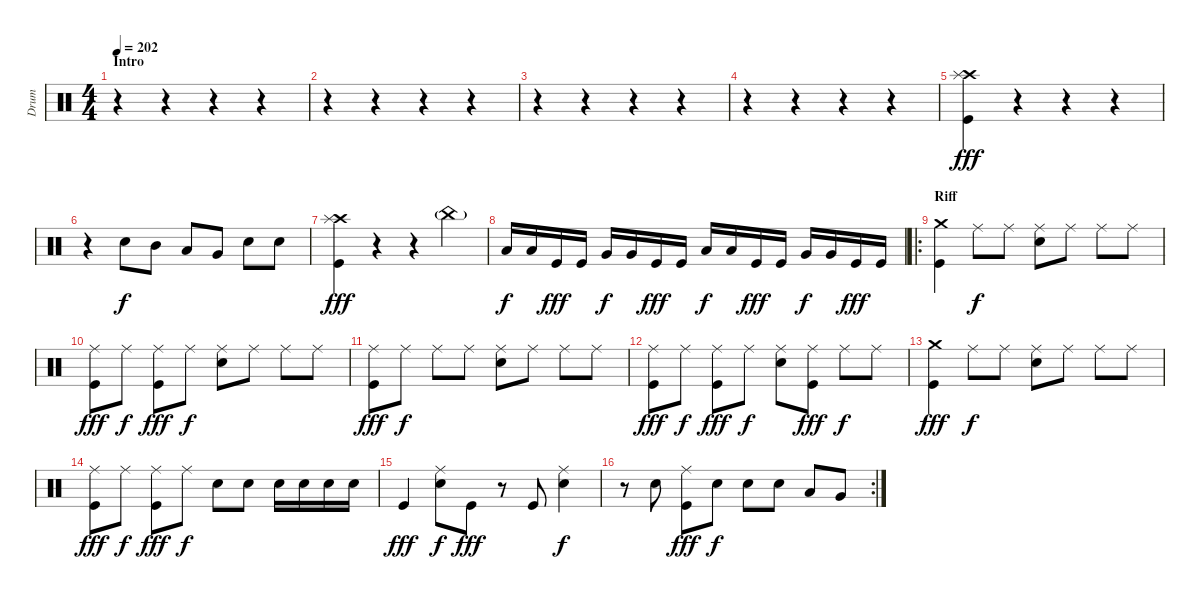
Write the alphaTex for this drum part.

\track ("Drum" "Drum") {instrument percussion}
\staff {score}
\articulation defaults
\ts (4 4)
\section ("" "Intro")
\tempo 202
\clef neutral
\ks c
r.4{dy fff} r.4 r.4 r.4 |
r.4 r.4 r.4 r.4 |
r.4 r.4 r.4 r.4 |
r.4 r.4 r.4 r.4 |
("Crash high (hit)" "Splash (hit)" "Kick (hit)").4 r.4 r.4 r.4 |
r.4 "Electric Snare (hit)".8{dy f} "Mid Tom (hit)".8 "Low Tom (hit)".8 "Very Low Tom (hit)".8 "Electric Snare (hit)".8 "Electric Snare (hit)".8 |
("Crash high (hit)" "Splash (hit)" "Kick (hit)").4{dy fff} r.4 r.4 "China (hit)"{g}.4 |
"Low Tom (hit)".16{dy f} "Low Tom (hit)".16 "Kick (hit)".16{dy fff} "Kick (hit)".16 "Very Low Tom (hit)".16{dy f} "Very Low Tom (hit)".16 "Kick (hit)".16{dy fff} "Kick (hit)".16 "Low Floor Tom (hit)".16{dy f} "Low Floor Tom (hit)".16 "Kick (hit)".16{dy fff} "Kick (hit)".16 "Very Low Tom (hit)".16{dy f} "Very Low Tom (hit)".16 "Kick (hit)".16{dy fff} "Kick (hit)".16 |
\ro
\section ("" "Riff")
("Crash medium (hit)" "Kick (hit)").4 "Ride (middle)".8{dy f} "Ride (middle)".8 ("Ride (middle)" "Electric Snare (hit)").8 "Ride (middle)".8 "Ride (middle)".8 "Ride (middle)".8 |
("Ride (middle)" "Kick (hit)").8{dy fff} "Ride (middle)".8{dy f} ("Ride (middle)" "Kick (hit)").8{dy fff} "Ride (middle)".8{dy f} ("Ride (middle)" "Electric Snare (hit)").8 "Ride (middle)".8 "Ride (middle)".8 "Ride (middle)".8 |
("Ride (middle)" "Kick (hit)").8{dy fff} "Ride (middle)".8{dy f} "Ride (middle)".8 "Ride (middle)".8 ("Ride (middle)" "Electric Snare (hit)").8 "Ride (middle)".8 "Ride (middle)".8 "Ride (middle)".8 |
("Ride (middle)" "Kick (hit)").8{dy fff} "Ride (middle)".8{dy f} ("Ride (middle)" "Kick (hit)").8{dy fff} "Ride (middle)".8{dy f} ("Ride (middle)" "Electric Snare (hit)").8 ("Ride (middle)" "Kick (hit)").8{dy fff} "Ride (middle)".8{dy f} "Ride (middle)".8 |
("Crash medium (hit)" "Kick (hit)").4{dy fff} "Ride (middle)".8{dy f} "Ride (middle)".8 ("Ride (middle)" "Electric Snare (hit)").8 "Ride (middle)".8 "Ride (middle)".8 "Ride (middle)".8 |
("Ride (middle)" "Kick (hit)").8{dy fff} "Ride (middle)".8{dy f} ("Ride (middle)" "Kick (hit)").8{dy fff} "Ride (middle)".8{dy f} "Electric Snare (hit)".8 "Electric Snare (hit)".8 "Electric Snare (hit)".16 "Electric Snare (hit)".16 "Electric Snare (hit)".16 "Electric Snare (hit)".16 |
"Kick (hit)".4{dy fff} ("Ride (middle)" "Electric Snare (hit)").8{dy f} "Kick (hit)".8{dy fff} r.8 "Kick (hit)".8 ("Ride (middle)" "Electric Snare (hit)").4{dy f} |
\rc 2
r.8 "Electric Snare (hit)".8 ("Ride (middle)" "Kick (hit)").8{dy fff} "Electric Snare (hit)".8{dy f} "Electric Snare (hit)".8 "Electric Snare (hit)".8 "Low Tom (hit)".8 "Very Low Tom (hit)".8
